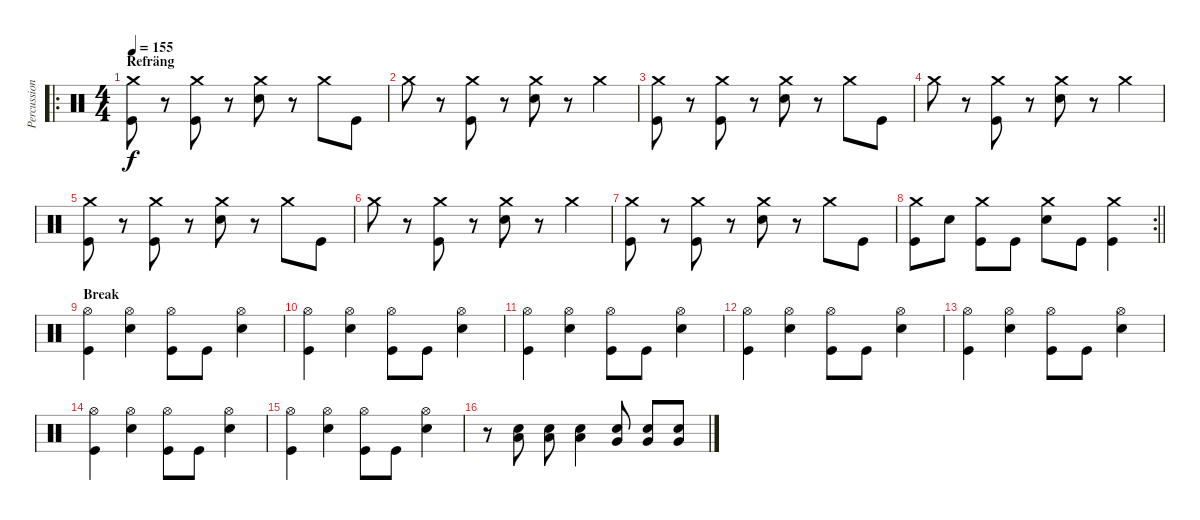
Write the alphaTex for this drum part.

\track ("Percussion" "Percussion") {instrument percussion}
\staff {score}
\articulation defaults
\ro
\ts (4 4)
\section ("" "Refräng")
\tempo 155
\clef neutral
\ks c
("Crash medium (hit)" "Kick (hit)").8{dy f} r.8 ("Crash medium (hit)" "Kick (hit)").8 r.8 ("Crash medium (hit)" "Electric Snare (hit)").8 r.8 "Crash medium (hit)".8 "Kick (hit)".8 |
"Crash medium (hit)".8 r.8 ("Crash medium (hit)" "Kick (hit)").8 r.8 ("Crash medium (hit)" "Electric Snare (hit)").8 r.8 "Crash medium (hit)".4 |
("Crash medium (hit)" "Kick (hit)").8 r.8 ("Crash medium (hit)" "Kick (hit)").8 r.8 ("Crash medium (hit)" "Electric Snare (hit)").8 r.8 "Crash medium (hit)".8 "Kick (hit)".8 |
"Crash medium (hit)".8 r.8 ("Crash medium (hit)" "Kick (hit)").8 r.8 ("Crash medium (hit)" "Electric Snare (hit)").8 r.8 "Crash medium (hit)".4 |
("Crash medium (hit)" "Kick (hit)").8 r.8 ("Crash medium (hit)" "Kick (hit)").8 r.8 ("Crash medium (hit)" "Electric Snare (hit)").8 r.8 "Crash medium (hit)".8 "Kick (hit)".8 |
"Crash medium (hit)".8 r.8 ("Crash medium (hit)" "Kick (hit)").8 r.8 ("Crash medium (hit)" "Electric Snare (hit)").8 r.8 "Crash medium (hit)".4 |
("Crash medium (hit)" "Kick (hit)").8 r.8 ("Crash medium (hit)" "Kick (hit)").8 r.8 ("Crash medium (hit)" "Electric Snare (hit)").8 r.8 "Crash medium (hit)".8 "Kick (hit)".8 |
\rc 2
\barLineRight lightlight
("Crash medium (hit)" "Kick (hit)").8 "Electric Snare (hit)".8 ("Crash medium (hit)" "Kick (hit)").8 "Kick (hit)".8 ("Crash medium (hit)" "Electric Snare (hit)").8 "Kick (hit)".8 ("Crash medium (hit)" "Kick (hit)").4 |
\section ("" "Break")
("Hi-Hat (open)" "Kick (hit)").4 ("Hi-Hat (open)" "Electric Snare (hit)").4 ("Hi-Hat (open)" "Kick (hit)").8 "Kick (hit)".8 ("Hi-Hat (open)" "Electric Snare (hit)").4 |
("Hi-Hat (open)" "Kick (hit)").4 ("Hi-Hat (open)" "Electric Snare (hit)").4 ("Hi-Hat (open)" "Kick (hit)").8 "Kick (hit)".8 ("Hi-Hat (open)" "Electric Snare (hit)").4 |
("Hi-Hat (open)" "Kick (hit)").4 ("Hi-Hat (open)" "Electric Snare (hit)").4 ("Hi-Hat (open)" "Kick (hit)").8 "Kick (hit)".8 ("Hi-Hat (open)" "Electric Snare (hit)").4 |
("Hi-Hat (open)" "Kick (hit)").4 ("Hi-Hat (open)" "Electric Snare (hit)").4 ("Hi-Hat (open)" "Kick (hit)").8 "Kick (hit)".8 ("Hi-Hat (open)" "Electric Snare (hit)").4 |
("Hi-Hat (open)" "Kick (hit)").4 ("Hi-Hat (open)" "Electric Snare (hit)").4 ("Hi-Hat (open)" "Kick (hit)").8 "Kick (hit)".8 ("Hi-Hat (open)" "Electric Snare (hit)").4 |
("Hi-Hat (open)" "Kick (hit)").4 ("Hi-Hat (open)" "Electric Snare (hit)").4 ("Hi-Hat (open)" "Kick (hit)").8 "Kick (hit)".8 ("Hi-Hat (open)" "Electric Snare (hit)").4 |
("Hi-Hat (open)" "Kick (hit)").4 ("Hi-Hat (open)" "Electric Snare (hit)").4 ("Hi-Hat (open)" "Kick (hit)").8 "Kick (hit)".8 ("Hi-Hat (open)" "Electric Snare (hit)").4 |
r.8 ("Low Tom (hit)" "Electric Snare (hit)").8 ("Low Tom (hit)" "Electric Snare (hit)").8 ("Low Tom (hit)" "Electric Snare (hit)").4 ("Very Low Tom (hit)" "Electric Snare (hit)").8 ("Electric Snare (hit)" "Very Low Tom (hit)").8 ("Very Low Tom (hit)" "Electric Snare (hit)").8
